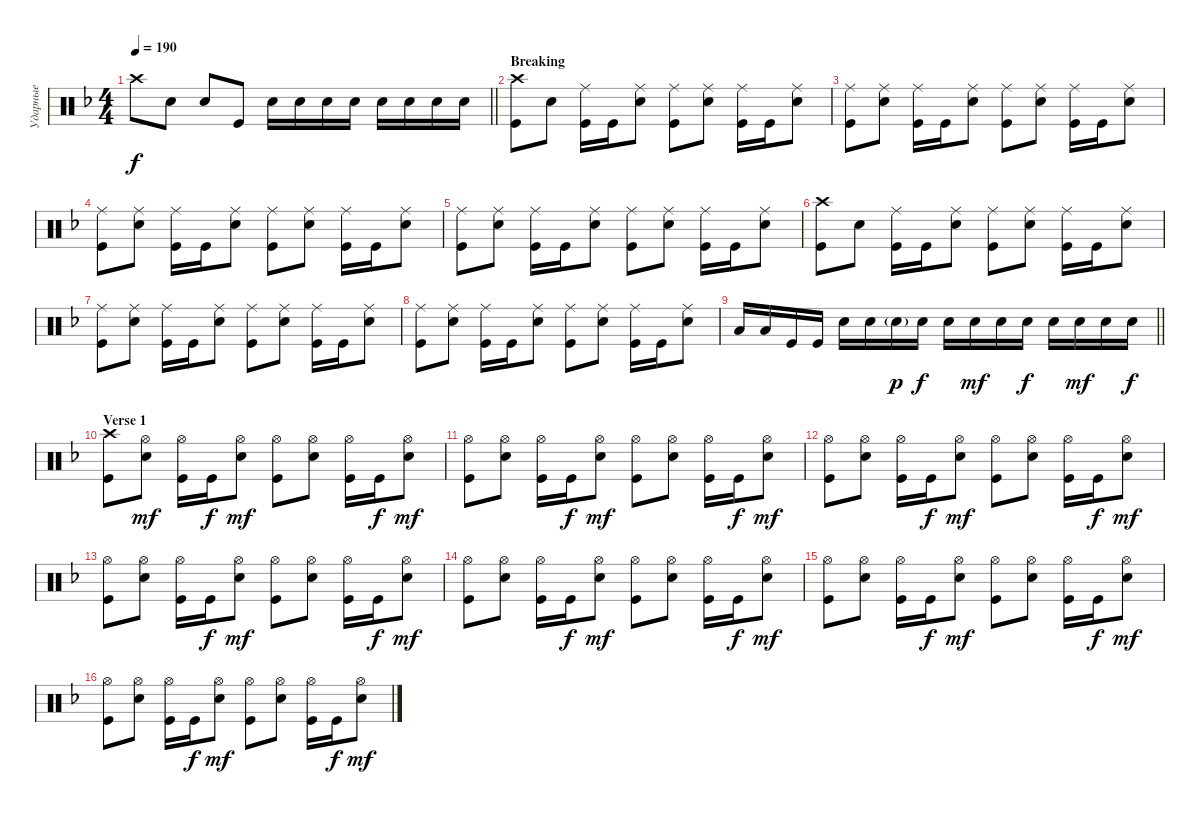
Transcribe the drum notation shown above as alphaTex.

\track ("Ударные" "Ударные") {instrument percussion}
\staff {score}
\articulation defaults
\ts (4 4)
\tempo 190
\clef neutral
\barLineRight lightlight
\ks dminor "Crash high (hit)"{t}.8{dy f} "Snare (hit) 2".8 "Snare (hit) 2".8 "Kick (hit)".8 "Snare (hit) 2".16 "Snare (hit) 2".16 "Snare (hit) 2".16 "Snare (hit) 2".16 "Snare (hit) 2".16 "Snare (hit) 2".16 "Snare (hit) 2".16 "Snare (hit) 2".16
|
\section ("" "Breaking")
("Kick (hit)" "Crash high (hit)").8 "Snare (hit) 2".8 ("Kick (hit)" "Ride (middle)").16 "Kick (hit)".16 ("Snare (hit) 2" "Ride (middle)").8 ("Kick (hit)" "Ride (middle)").8 ("Snare (hit) 2" "Ride (middle)").8 ("Kick (hit)" "Ride (middle)").16 "Kick (hit)".16 ("Snare (hit) 2" "Ride (middle)").8 |
("Kick (hit)" "Ride (middle)").8 ("Snare (hit) 2" "Ride (middle)").8 ("Kick (hit)" "Ride (middle)").16 "Kick (hit)".16 ("Snare (hit) 2" "Ride (middle)").8 ("Kick (hit)" "Ride (middle)").8 ("Snare (hit) 2" "Ride (middle)").8 ("Kick (hit)" "Ride (middle)").16 "Kick (hit)".16 ("Snare (hit) 2" "Ride (middle)").8 |
("Kick (hit)" "Ride (middle)").8 ("Snare (hit) 2" "Ride (middle)").8 ("Kick (hit)" "Ride (middle)").16 "Kick (hit)".16 ("Snare (hit) 2" "Ride (middle)").8 ("Kick (hit)" "Ride (middle)").8 ("Snare (hit) 2" "Ride (middle)").8 ("Kick (hit)" "Ride (middle)").16 "Kick (hit)".16 ("Snare (hit) 2" "Ride (middle)").8 |
("Kick (hit)" "Ride (middle)").8 ("Snare (hit) 2" "Ride (middle)").8 ("Kick (hit)" "Ride (middle)").16 "Kick (hit)".16 ("Snare (hit) 2" "Ride (middle)").8 ("Kick (hit)" "Ride (middle)").8 ("Snare (hit) 2" "Ride (middle)").8 ("Kick (hit)" "Ride (middle)").16 "Kick (hit)".16 ("Snare (hit) 2" "Ride (middle)").8 |
("Kick (hit)" "Crash high (hit)").8 "Snare (hit) 2".8 ("Kick (hit)" "Ride (middle)").16 "Kick (hit)".16 ("Snare (hit) 2" "Ride (middle)").8 ("Kick (hit)" "Ride (middle)").8 ("Snare (hit) 2" "Ride (middle)").8 ("Kick (hit)" "Ride (middle)").16 "Kick (hit)".16 ("Snare (hit) 2" "Ride (middle)").8 |
("Kick (hit)" "Ride (middle)").8 ("Snare (hit) 2" "Ride (middle)").8 ("Kick (hit)" "Ride (middle)").16 "Kick (hit)".16 ("Snare (hit) 2" "Ride (middle)").8 ("Kick (hit)" "Ride (middle)").8 ("Snare (hit) 2" "Ride (middle)").8 ("Kick (hit)" "Ride (middle)").16 "Kick (hit)".16 ("Snare (hit) 2" "Ride (middle)").8 |
("Kick (hit)" "Ride (middle)").8 ("Snare (hit) 2" "Ride (middle)").8 ("Kick (hit)" "Ride (middle)").16 "Kick (hit)".16 ("Snare (hit) 2" "Ride (middle)").8 ("Kick (hit)" "Ride (middle)").8 ("Snare (hit) 2" "Ride (middle)").8 ("Kick (hit)" "Ride (middle)").16 "Kick (hit)".16 ("Snare (hit) 2" "Ride (middle)").8 |
\barLineRight lightlight "Low Tom (hit)".16 "Low Tom (hit)".16 "Kick (hit)".16 "Kick (hit)".16 "Snare (hit) 2".16 "Snare (hit) 2".16 "Snare (hit) 2"{g}.16{dy p} "Snare (hit) 2".16{dy f} "Snare (hit) 2".16 "Snare (hit) 2".16{dy mf} "Snare (hit) 2".16 "Snare (hit) 2".16{dy f} "Snare (hit) 2".16 "Snare (hit) 2".16{dy mf} "Snare (hit) 2".16 "Snare (hit) 2".16{dy f}
|
\section ("" "Verse 1")
("Kick (hit)" "Crash high (hit)").8 ("Snare (hit) 2" "Hi-Hat (open)").8{dy mf} ("Kick (hit)" "Hi-Hat (open)").16 "Kick (hit)".16{dy f} ("Snare (hit) 2" "Hi-Hat (open)").8{dy mf} ("Kick (hit)" "Hi-Hat (open)").8 ("Snare (hit) 2" "Hi-Hat (open)").8 ("Kick (hit)" "Hi-Hat (open)").16 "Kick (hit)".16{dy f} ("Snare (hit) 2" "Hi-Hat (open)").8{dy mf} |
("Kick (hit)" "Hi-Hat (open)").8 ("Snare (hit) 2" "Hi-Hat (open)").8 ("Kick (hit)" "Hi-Hat (open)").16 "Kick (hit)".16{dy f} ("Snare (hit) 2" "Hi-Hat (open)").8{dy mf} ("Kick (hit)" "Hi-Hat (open)").8 ("Snare (hit) 2" "Hi-Hat (open)").8 ("Kick (hit)" "Hi-Hat (open)").16 "Kick (hit)".16{dy f} ("Snare (hit) 2" "Hi-Hat (open)").8{dy mf} |
("Kick (hit)" "Hi-Hat (open)").8 ("Snare (hit) 2" "Hi-Hat (open)").8 ("Kick (hit)" "Hi-Hat (open)").16 "Kick (hit)".16{dy f} ("Snare (hit) 2" "Hi-Hat (open)").8{dy mf} ("Kick (hit)" "Hi-Hat (open)").8 ("Snare (hit) 2" "Hi-Hat (open)").8 ("Kick (hit)" "Hi-Hat (open)").16 "Kick (hit)".16{dy f} ("Snare (hit) 2" "Hi-Hat (open)").8{dy mf} |
("Kick (hit)" "Hi-Hat (open)").8 ("Snare (hit) 2" "Hi-Hat (open)").8 ("Kick (hit)" "Hi-Hat (open)").16 "Kick (hit)".16{dy f} ("Snare (hit) 2" "Hi-Hat (open)").8{dy mf} ("Kick (hit)" "Hi-Hat (open)").8 ("Snare (hit) 2" "Hi-Hat (open)").8 ("Kick (hit)" "Hi-Hat (open)").16 "Kick (hit)".16{dy f} ("Snare (hit) 2" "Hi-Hat (open)").8{dy mf} |
("Kick (hit)" "Hi-Hat (open)").8 ("Snare (hit) 2" "Hi-Hat (open)").8 ("Kick (hit)" "Hi-Hat (open)").16 "Kick (hit)".16{dy f} ("Snare (hit) 2" "Hi-Hat (open)").8{dy mf} ("Kick (hit)" "Hi-Hat (open)").8 ("Snare (hit) 2" "Hi-Hat (open)").8 ("Kick (hit)" "Hi-Hat (open)").16 "Kick (hit)".16{dy f} ("Snare (hit) 2" "Hi-Hat (open)").8{dy mf} |
("Kick (hit)" "Hi-Hat (open)").8 ("Snare (hit) 2" "Hi-Hat (open)").8 ("Kick (hit)" "Hi-Hat (open)").16 "Kick (hit)".16{dy f} ("Snare (hit) 2" "Hi-Hat (open)").8{dy mf} ("Kick (hit)" "Hi-Hat (open)").8 ("Snare (hit) 2" "Hi-Hat (open)").8 ("Kick (hit)" "Hi-Hat (open)").16 "Kick (hit)".16{dy f} ("Snare (hit) 2" "Hi-Hat (open)").8{dy mf} |
("Kick (hit)" "Hi-Hat (open)").8 ("Snare (hit) 2" "Hi-Hat (open)").8 ("Kick (hit)" "Hi-Hat (open)").16 "Kick (hit)".16{dy f} ("Snare (hit) 2" "Hi-Hat (open)").8{dy mf} ("Kick (hit)" "Hi-Hat (open)").8 ("Snare (hit) 2" "Hi-Hat (open)").8 ("Kick (hit)" "Hi-Hat (open)").16 "Kick (hit)".16{dy f} ("Snare (hit) 2" "Hi-Hat (open)").8{dy mf}
